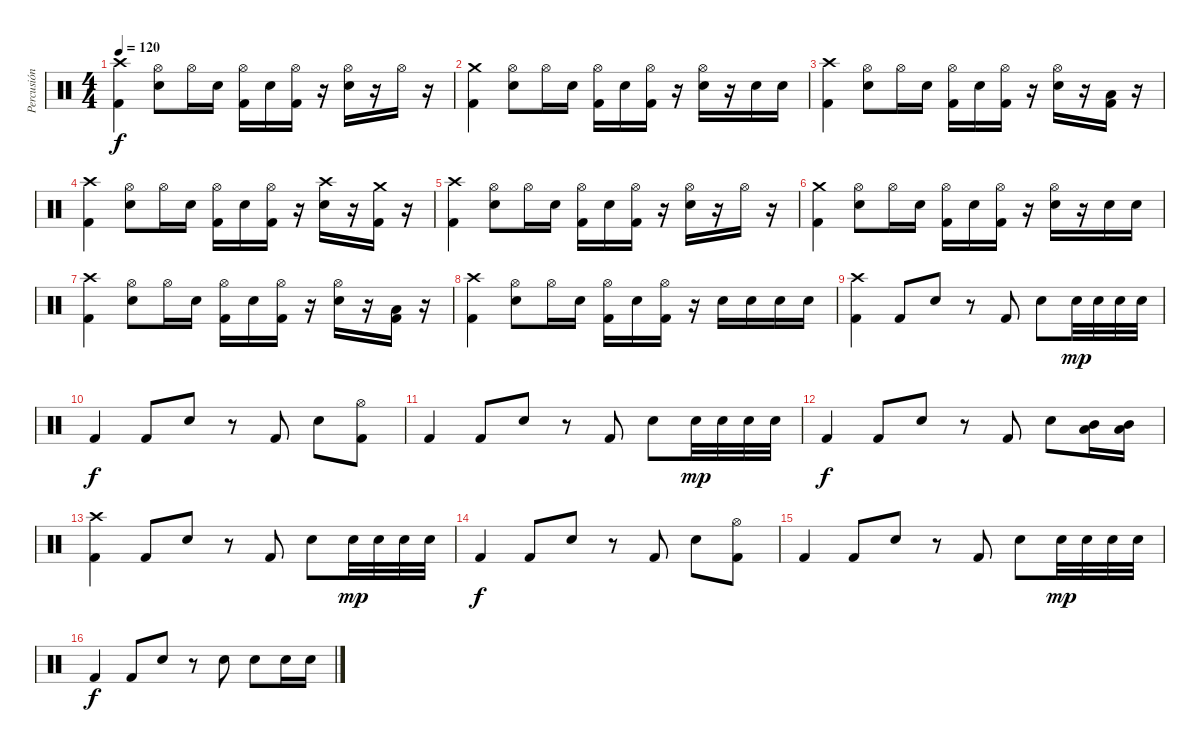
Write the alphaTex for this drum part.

\track ("Percusión" "Percusión") {instrument percussion}
\staff {score}
\articulation defaults
\ts (4 4)
\tempo 120
\clef neutral
\ks c
("Crash high (hit)" "Kick (hit) 2").4{dy f} ("Hi-Hat (open)" "Electric Snare (hit)").8 "Hi-Hat (open)".16 "Electric Snare (hit)".16 ("Hi-Hat (open)" "Kick (hit) 2").16 "Electric Snare (hit)".16 ("Hi-Hat (open)" "Kick (hit) 2").16 r.16 ("Hi-Hat (open)" "Electric Snare (hit)").16 r.16 "Hi-Hat (open)".16 r.16 |
("Crash medium (hit)" "Kick (hit) 2").4 ("Hi-Hat (open)" "Electric Snare (hit)").8 "Hi-Hat (open)".16 "Electric Snare (hit)".16 ("Hi-Hat (open)" "Kick (hit) 2").16 "Electric Snare (hit)".16 ("Hi-Hat (open)" "Kick (hit) 2").16 r.16 ("Hi-Hat (open)" "Electric Snare (hit)").16 r.16 "Electric Snare (hit)".16 "Electric Snare (hit)".16 |
("Crash high (hit)" "Kick (hit) 2").4 ("Hi-Hat (open)" "Electric Snare (hit)").8 "Hi-Hat (open)".16 "Electric Snare (hit)".16 ("Hi-Hat (open)" "Kick (hit) 2").16 "Electric Snare (hit)".16 ("Hi-Hat (open)" "Kick (hit) 2").16 r.16 ("Hi-Hat (open)" "Electric Snare (hit)").16 r.16 ("Low Tom (hit)" "Kick (hit) 2").16 r.16 |
("Crash high (hit)" "Kick (hit) 2").4 ("Hi-Hat (open)" "Electric Snare (hit)").8 "Hi-Hat (open)".16 "Electric Snare (hit)".16 ("Hi-Hat (open)" "Kick (hit) 2").16 "Electric Snare (hit)".16 ("Hi-Hat (open)" "Kick (hit) 2").16 r.16 ("Crash high (hit)" "Electric Snare (hit)").16 r.16 ("Crash medium (hit)" "Kick (hit) 2").16 r.16 |
("Crash high (hit)" "Kick (hit) 2").4 ("Hi-Hat (open)" "Electric Snare (hit)").8 "Hi-Hat (open)".16 "Electric Snare (hit)".16 ("Hi-Hat (open)" "Kick (hit) 2").16 "Electric Snare (hit)".16 ("Hi-Hat (open)" "Kick (hit) 2").16 r.16 ("Hi-Hat (open)" "Electric Snare (hit)").16 r.16 "Hi-Hat (open)".16 r.16 |
("Crash medium (hit)" "Kick (hit) 2").4 ("Hi-Hat (open)" "Electric Snare (hit)").8 "Hi-Hat (open)".16 "Electric Snare (hit)".16 ("Hi-Hat (open)" "Kick (hit) 2").16 "Electric Snare (hit)".16 ("Hi-Hat (open)" "Kick (hit) 2").16 r.16 ("Hi-Hat (open)" "Electric Snare (hit)").16 r.16 "Electric Snare (hit)".16 "Electric Snare (hit)".16 |
("Crash high (hit)" "Kick (hit) 2").4 ("Hi-Hat (open)" "Electric Snare (hit)").8 "Hi-Hat (open)".16 "Electric Snare (hit)".16 ("Hi-Hat (open)" "Kick (hit) 2").16 "Electric Snare (hit)".16 ("Hi-Hat (open)" "Kick (hit) 2").16 r.16 ("Hi-Hat (open)" "Electric Snare (hit)").16 r.16 ("Low Tom (hit)" "Kick (hit) 2").16 r.16 |
("Crash high (hit)" "Kick (hit) 2").4 ("Hi-Hat (open)" "Electric Snare (hit)").8 "Hi-Hat (open)".16 "Electric Snare (hit)".16 ("Hi-Hat (open)" "Kick (hit) 2").16 "Electric Snare (hit)".16 ("Hi-Hat (open)" "Kick (hit) 2").16 r.16 "Electric Snare (hit)".16 "Electric Snare (hit)".16 "Electric Snare (hit)".16 "Electric Snare (hit)".16 |
("Crash high (hit)" "Kick (hit) 2").4 "Kick (hit) 2".8 "Electric Snare (hit)".8 r.8 "Kick (hit) 2".8 "Electric Snare (hit)".8 "Electric Snare (hit)".32{dy mp} "Electric Snare (hit)".32 "Electric Snare (hit)".32 "Electric Snare (hit)".32 |
"Kick (hit) 2".4{dy f} "Kick (hit) 2".8 "Electric Snare (hit)".8 r.8 "Kick (hit) 2".8 "Electric Snare (hit)".8 ("Hi-Hat (open)" "Kick (hit) 2").8 |
"Kick (hit) 2".4 "Kick (hit) 2".8 "Electric Snare (hit)".8 r.8 "Kick (hit) 2".8 "Electric Snare (hit)".8 "Electric Snare (hit)".32{dy mp} "Electric Snare (hit)".32 "Electric Snare (hit)".32 "Electric Snare (hit)".32 |
"Kick (hit) 2".4{dy f} "Kick (hit) 2".8 "Electric Snare (hit)".8 r.8 "Kick (hit) 2".8 "Electric Snare (hit)".8 ("Mid Tom (hit)" "Low Tom (hit)").16 ("Mid Tom (hit)" "Low Tom (hit)").16 |
("Crash high (hit)" "Kick (hit) 2").4 "Kick (hit) 2".8 "Electric Snare (hit)".8 r.8 "Kick (hit) 2".8 "Electric Snare (hit)".8 "Electric Snare (hit)".32{dy mp} "Electric Snare (hit)".32 "Electric Snare (hit)".32 "Electric Snare (hit)".32 |
"Kick (hit) 2".4{dy f} "Kick (hit) 2".8 "Electric Snare (hit)".8 r.8 "Kick (hit) 2".8 "Electric Snare (hit)".8 ("Hi-Hat (open)" "Kick (hit) 2").8 |
"Kick (hit) 2".4 "Kick (hit) 2".8 "Electric Snare (hit)".8 r.8 "Kick (hit) 2".8 "Electric Snare (hit)".8 "Electric Snare (hit)".32{dy mp} "Electric Snare (hit)".32 "Electric Snare (hit)".32 "Electric Snare (hit)".32 |
"Kick (hit) 2".4{dy f} "Kick (hit) 2".8 "Electric Snare (hit)".8 r.8 "Electric Snare (hit)".8 "Electric Snare (hit)".8 "Electric Snare (hit)".16 "Electric Snare (hit)".16
